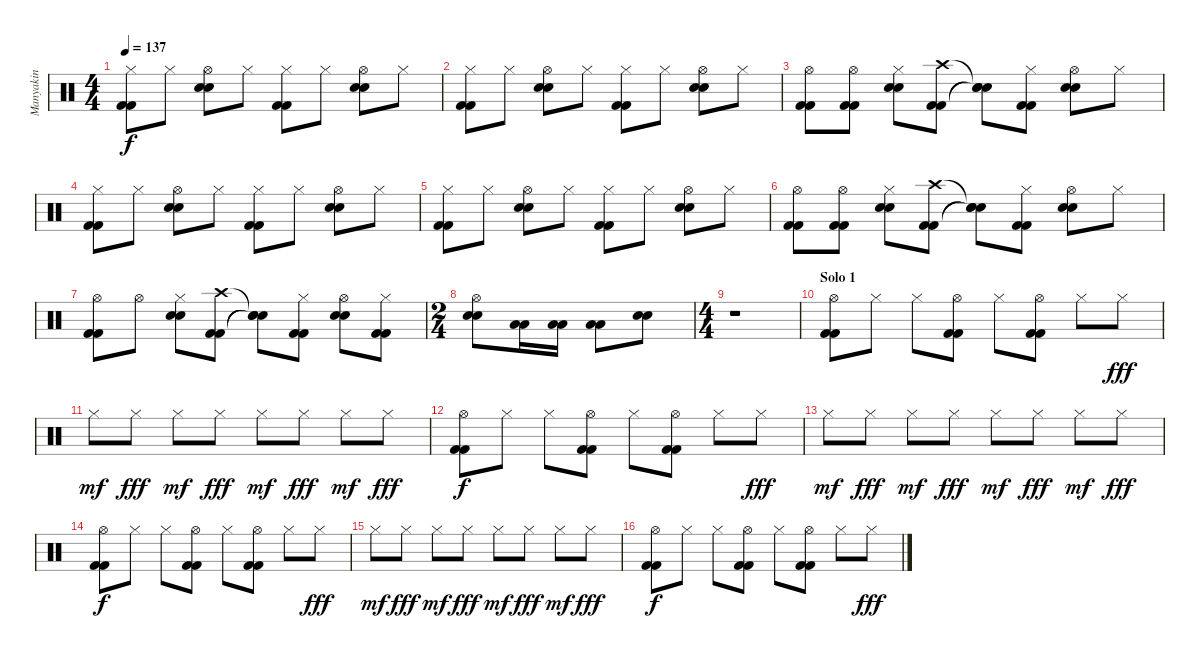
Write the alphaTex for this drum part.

\track ("Manyakin" "Manyakin") {instrument percussion}
\staff {score}
\articulation defaults
\ts (4 4)
\tempo 137
\clef neutral
\ks c
("Hi-Hat (closed)" "Kick (hit) 2" "Kick (hit) 2").8{dy f} "Hi-Hat (closed)".8 ("Hi-Hat (open)" "Electric Snare (hit)" "Electric Snare (hit)").8 "Hi-Hat (closed)".8 ("Hi-Hat (closed)" "Kick (hit) 2" "Kick (hit) 2").8 "Hi-Hat (closed)".8 ("Hi-Hat (open)" "Electric Snare (hit)" "Electric Snare (hit)").8 "Hi-Hat (closed)".8 |
("Hi-Hat (closed)" "Kick (hit) 2" "Kick (hit) 2").8 "Hi-Hat (closed)".8 ("Hi-Hat (open)" "Electric Snare (hit)" "Electric Snare (hit)").8 "Hi-Hat (closed)".8 ("Hi-Hat (closed)" "Kick (hit) 2" "Kick (hit) 2").8 "Hi-Hat (closed)".8 ("Hi-Hat (open)" "Electric Snare (hit)" "Electric Snare (hit)").8 "Hi-Hat (closed)".8 |
("Hi-Hat (open)" "Kick (hit) 2" "Kick (hit) 2").8 ("Hi-Hat (open)" "Kick (hit) 2" "Kick (hit) 2").8 ("Hi-Hat (closed)" "Electric Snare (hit)" "Electric Snare (hit)").8 ("Crash high (hit)" "Kick (hit) 2" "Kick (hit) 2").8 ("Snare (hit)"{t} "Snare (hit)"{t} "Snare (hit)"{t}).8 ("Hi-Hat (closed)" "Kick (hit) 2" "Kick (hit) 2").8 ("Hi-Hat (open)" "Electric Snare (hit)" "Electric Snare (hit)").8 "Hi-Hat (closed)".8 |
("Hi-Hat (closed)" "Kick (hit) 2" "Kick (hit) 2").8 "Hi-Hat (closed)".8 ("Hi-Hat (open)" "Electric Snare (hit)" "Electric Snare (hit)").8 "Hi-Hat (closed)".8 ("Hi-Hat (closed)" "Kick (hit) 2" "Kick (hit) 2").8 "Hi-Hat (closed)".8 ("Hi-Hat (open)" "Electric Snare (hit)" "Electric Snare (hit)").8 "Hi-Hat (closed)".8 |
("Hi-Hat (closed)" "Kick (hit) 2" "Kick (hit) 2").8 "Hi-Hat (closed)".8 ("Hi-Hat (open)" "Electric Snare (hit)" "Electric Snare (hit)").8 "Hi-Hat (closed)".8 ("Hi-Hat (closed)" "Kick (hit) 2" "Kick (hit) 2").8 "Hi-Hat (closed)".8 ("Hi-Hat (open)" "Electric Snare (hit)" "Electric Snare (hit)").8 "Hi-Hat (closed)".8 |
("Hi-Hat (open)" "Kick (hit) 2" "Kick (hit) 2").8 ("Hi-Hat (open)" "Kick (hit) 2" "Kick (hit) 2").8 ("Hi-Hat (closed)" "Electric Snare (hit)" "Electric Snare (hit)").8 ("Crash high (hit)" "Kick (hit) 2" "Kick (hit) 2").8 ("Snare (hit)"{t} "Snare (hit)"{t} "Snare (hit)"{t}).8 ("Hi-Hat (closed)" "Kick (hit) 2" "Kick (hit) 2").8 ("Hi-Hat (open)" "Electric Snare (hit)" "Electric Snare (hit)").8 "Hi-Hat (closed)".8 |
("Hi-Hat (open)" "Kick (hit) 2" "Kick (hit) 2").8 "Hi-Hat (open)".8 ("Hi-Hat (closed)" "Electric Snare (hit)" "Electric Snare (hit)").8 ("Crash high (hit)" "Kick (hit) 2" "Kick (hit) 2").8 ("Snare (hit)"{t} "Snare (hit)"{t} "Snare (hit)"{t}).8 ("Hi-Hat (closed)" "Kick (hit) 2" "Kick (hit) 2").8 ("Hi-Hat (open)" "Electric Snare (hit)" "Electric Snare (hit)").8 ("Hi-Hat (closed)" "Kick (hit) 2" "Kick (hit) 2").8 |
\ts (2 4)
("Hi-Hat (open)" "Electric Snare (hit)" "Electric Snare (hit)").8 ("Low Tom (hit)" "Low Tom (hit)").16 ("Low Tom (hit)" "Low Tom (hit)").16 ("Low Tom (hit)" "Low Tom (hit)").8 ("Electric Snare (hit)" "Electric Snare (hit)").8 |
\ts (4 4)
r.1 |
\section ("" "Solo 1")
("Hi-Hat (open)" "Kick (hit) 2" "Kick (hit) 2").8 "Hi-Hat (closed)".8 "Hi-Hat (closed)".8 ("Hi-Hat (open)" "Kick (hit) 2" "Kick (hit) 2").8 "Hi-Hat (closed)".8 ("Hi-Hat (open)" "Kick (hit) 2" "Kick (hit) 2").8 "Hi-Hat (closed)".8 "Hi-Hat (closed)".8{dy fff} |
"Hi-Hat (closed)".8{dy mf} "Hi-Hat (closed)".8{dy fff} "Hi-Hat (closed)".8{dy mf} "Hi-Hat (closed)".8{dy fff} "Hi-Hat (closed)".8{dy mf} "Hi-Hat (closed)".8{dy fff} "Hi-Hat (closed)".8{dy mf} "Hi-Hat (closed)".8{dy fff} |
("Hi-Hat (open)" "Kick (hit) 2" "Kick (hit) 2").8{dy f} "Hi-Hat (closed)".8 "Hi-Hat (closed)".8 ("Hi-Hat (open)" "Kick (hit) 2" "Kick (hit) 2").8 "Hi-Hat (closed)".8 ("Hi-Hat (open)" "Kick (hit) 2" "Kick (hit) 2").8 "Hi-Hat (closed)".8 "Hi-Hat (closed)".8{dy fff} |
"Hi-Hat (closed)".8{dy mf} "Hi-Hat (closed)".8{dy fff} "Hi-Hat (closed)".8{dy mf} "Hi-Hat (closed)".8{dy fff} "Hi-Hat (closed)".8{dy mf} "Hi-Hat (closed)".8{dy fff} "Hi-Hat (closed)".8{dy mf} "Hi-Hat (closed)".8{dy fff} |
("Hi-Hat (open)" "Kick (hit) 2" "Kick (hit) 2").8{dy f} "Hi-Hat (closed)".8 "Hi-Hat (closed)".8 ("Hi-Hat (open)" "Kick (hit) 2" "Kick (hit) 2").8 "Hi-Hat (closed)".8 ("Hi-Hat (open)" "Kick (hit) 2" "Kick (hit) 2").8 "Hi-Hat (closed)".8 "Hi-Hat (closed)".8{dy fff} |
"Hi-Hat (closed)".8{dy mf} "Hi-Hat (closed)".8{dy fff} "Hi-Hat (closed)".8{dy mf} "Hi-Hat (closed)".8{dy fff} "Hi-Hat (closed)".8{dy mf} "Hi-Hat (closed)".8{dy fff} "Hi-Hat (closed)".8{dy mf} "Hi-Hat (closed)".8{dy fff} |
("Hi-Hat (open)" "Kick (hit) 2" "Kick (hit) 2").8{dy f} "Hi-Hat (closed)".8 "Hi-Hat (closed)".8 ("Hi-Hat (open)" "Kick (hit) 2" "Kick (hit) 2").8 "Hi-Hat (closed)".8 ("Hi-Hat (open)" "Kick (hit) 2" "Kick (hit) 2").8 "Hi-Hat (closed)".8 "Hi-Hat (closed)".8{dy fff}
